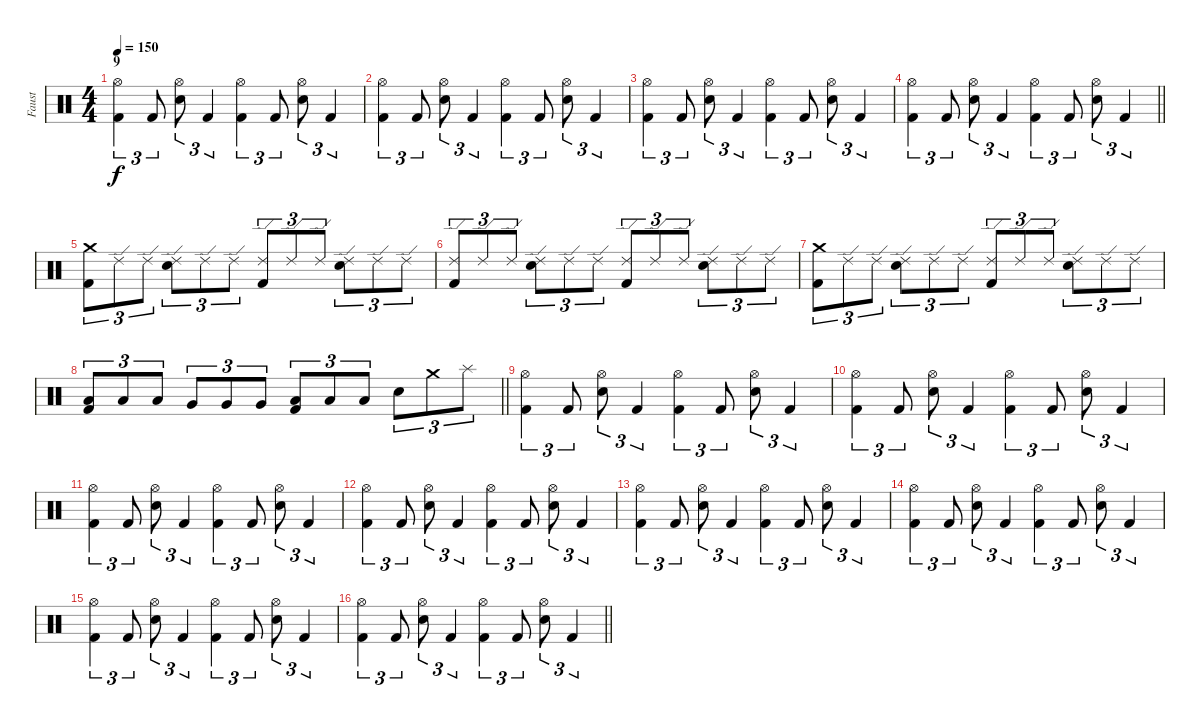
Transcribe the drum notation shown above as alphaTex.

\track ("Faust" "Faust") {instrument percussion}
\staff {score}
\articulation defaults
\ts (4 4)
\section ("" "9")
\tempo 150
\clef neutral
\ks c
("Hi-Hat (open)" "Kick (hit) 2").4{tu (3 2) dy f} "Kick (hit) 2".8{tu (3 2)} ("Hi-Hat (open)" "Electric Snare (hit)").8{tu (3 2)} "Kick (hit) 2".4{tu (3 2)} ("Hi-Hat (open)" "Kick (hit) 2").4{tu (3 2)} "Kick (hit) 2".8{tu (3 2)} ("Hi-Hat (open)" "Electric Snare (hit)").8{tu (3 2)} "Kick (hit) 2".4{tu (3 2)} |
("Hi-Hat (open)" "Kick (hit) 2").4{tu (3 2)} "Kick (hit) 2".8{tu (3 2)} ("Hi-Hat (open)" "Electric Snare (hit)").8{tu (3 2)} "Kick (hit) 2".4{tu (3 2)} ("Hi-Hat (open)" "Kick (hit) 2").4{tu (3 2)} "Kick (hit) 2".8{tu (3 2)} ("Hi-Hat (open)" "Electric Snare (hit)").8{tu (3 2)} "Kick (hit) 2".4{tu (3 2)} |
("Hi-Hat (open)" "Kick (hit) 2").4{tu (3 2)} "Kick (hit) 2".8{tu (3 2)} ("Hi-Hat (open)" "Electric Snare (hit)").8{tu (3 2)} "Kick (hit) 2".4{tu (3 2)} ("Hi-Hat (open)" "Kick (hit) 2").4{tu (3 2)} "Kick (hit) 2".8{tu (3 2)} ("Hi-Hat (open)" "Electric Snare (hit)").8{tu (3 2)} "Kick (hit) 2".4{tu (3 2)} |
\barLineRight lightlight
("Hi-Hat (open)" "Kick (hit) 2").4{tu (3 2)} "Kick (hit) 2".8{tu (3 2)} ("Hi-Hat (open)" "Electric Snare (hit)").8{tu (3 2)} "Kick (hit) 2".4{tu (3 2)} ("Hi-Hat (open)" "Kick (hit) 2").4{tu (3 2)} "Kick (hit) 2".8{tu (3 2)} ("Hi-Hat (open)" "Electric Snare (hit)").8{tu (3 2)} "Kick (hit) 2".4{tu (3 2)} |
\section ("" "")
("Crash medium (hit)" "Kick (hit) 2").8{tu (3 2)} "Ride (edge) 2".8{tu (3 2)} "Ride (edge) 2".8{tu (3 2)} ("Ride (edge) 2" "Electric Snare (hit)").8{tu (3 2)} "Ride (edge) 2".8{tu (3 2)} "Ride (edge) 2".8{tu (3 2)} ("Ride (edge) 2" "Kick (hit) 2").8{tu (3 2)} "Ride (edge) 2".8{tu (3 2)} "Ride (edge) 2".8{tu (3 2)} ("Ride (edge) 2" "Electric Snare (hit)").8{tu (3 2)} "Ride (edge) 2".8{tu (3 2)} "Ride (edge) 2".8{tu (3 2)} |
("Ride (edge) 2" "Kick (hit) 2").8{tu (3 2)} "Ride (edge) 2".8{tu (3 2)} "Ride (edge) 2".8{tu (3 2)} ("Ride (edge) 2" "Electric Snare (hit)").8{tu (3 2)} "Ride (edge) 2".8{tu (3 2)} "Ride (edge) 2".8{tu (3 2)} ("Ride (edge) 2" "Kick (hit) 2").8{tu (3 2)} "Ride (edge) 2".8{tu (3 2)} "Ride (edge) 2".8{tu (3 2)} ("Ride (edge) 2" "Electric Snare (hit)").8{tu (3 2)} "Ride (edge) 2".8{tu (3 2)} "Ride (edge) 2".8{tu (3 2)} |
("Crash medium (hit)" "Kick (hit) 2").8{tu (3 2)} "Ride (edge) 2".8{tu (3 2)} "Ride (edge) 2".8{tu (3 2)} ("Ride (edge) 2" "Electric Snare (hit)").8{tu (3 2)} "Ride (edge) 2".8{tu (3 2)} "Ride (edge) 2".8{tu (3 2)} ("Ride (edge) 2" "Kick (hit) 2").8{tu (3 2)} "Ride (edge) 2".8{tu (3 2)} "Ride (edge) 2".8{tu (3 2)} ("Ride (edge) 2" "Electric Snare (hit)").8{tu (3 2)} "Ride (edge) 2".8{tu (3 2)} "Ride (edge) 2".8{tu (3 2)} |
\barLineRight lightlight
("Low Tom (hit)" "Kick (hit) 2").8{tu (3 2)} "Low Tom (hit)".8{tu (3 2)} "Low Tom (hit)".8{tu (3 2)} "Very Low Tom (hit)".8{tu (3 2)} "Very Low Tom (hit)".8{tu (3 2)} "Very Low Tom (hit)".8{tu (3 2)} ("Low Floor Tom (hit)" "Kick (hit) 2").8{tu (3 2)} "Low Floor Tom (hit)".8{tu (3 2)} "Low Floor Tom (hit)".8{tu (3 2)} "Electric Snare (hit)".8{tu (3 2)} "Crash medium (hit)".8{tu (3 2)} "Splash (hit)".8{tu (3 2)} |
\section ("" "")
("Hi-Hat (open)" "Kick (hit) 2").4{tu (3 2)} "Kick (hit) 2".8{tu (3 2)} ("Hi-Hat (open)" "Electric Snare (hit)").8{tu (3 2)} "Kick (hit) 2".4{tu (3 2)} ("Hi-Hat (open)" "Kick (hit) 2").4{tu (3 2)} "Kick (hit) 2".8{tu (3 2)} ("Hi-Hat (open)" "Electric Snare (hit)").8{tu (3 2)} "Kick (hit) 2".4{tu (3 2)} |
("Hi-Hat (open)" "Kick (hit) 2").4{tu (3 2)} "Kick (hit) 2".8{tu (3 2)} ("Hi-Hat (open)" "Electric Snare (hit)").8{tu (3 2)} "Kick (hit) 2".4{tu (3 2)} ("Hi-Hat (open)" "Kick (hit) 2").4{tu (3 2)} "Kick (hit) 2".8{tu (3 2)} ("Hi-Hat (open)" "Electric Snare (hit)").8{tu (3 2)} "Kick (hit) 2".4{tu (3 2)} |
("Hi-Hat (open)" "Kick (hit) 2").4{tu (3 2)} "Kick (hit) 2".8{tu (3 2)} ("Hi-Hat (open)" "Electric Snare (hit)").8{tu (3 2)} "Kick (hit) 2".4{tu (3 2)} ("Hi-Hat (open)" "Kick (hit) 2").4{tu (3 2)} "Kick (hit) 2".8{tu (3 2)} ("Hi-Hat (open)" "Electric Snare (hit)").8{tu (3 2)} "Kick (hit) 2".4{tu (3 2)} |
("Hi-Hat (open)" "Kick (hit) 2").4{tu (3 2)} "Kick (hit) 2".8{tu (3 2)} ("Hi-Hat (open)" "Electric Snare (hit)").8{tu (3 2)} "Kick (hit) 2".4{tu (3 2)} ("Hi-Hat (open)" "Kick (hit) 2").4{tu (3 2)} "Kick (hit) 2".8{tu (3 2)} ("Hi-Hat (open)" "Electric Snare (hit)").8{tu (3 2)} "Kick (hit) 2".4{tu (3 2)} |
("Hi-Hat (open)" "Kick (hit) 2").4{tu (3 2)} "Kick (hit) 2".8{tu (3 2)} ("Hi-Hat (open)" "Electric Snare (hit)").8{tu (3 2)} "Kick (hit) 2".4{tu (3 2)} ("Hi-Hat (open)" "Kick (hit) 2").4{tu (3 2)} "Kick (hit) 2".8{tu (3 2)} ("Hi-Hat (open)" "Electric Snare (hit)").8{tu (3 2)} "Kick (hit) 2".4{tu (3 2)} |
("Hi-Hat (open)" "Kick (hit) 2").4{tu (3 2)} "Kick (hit) 2".8{tu (3 2)} ("Hi-Hat (open)" "Electric Snare (hit)").8{tu (3 2)} "Kick (hit) 2".4{tu (3 2)} ("Hi-Hat (open)" "Kick (hit) 2").4{tu (3 2)} "Kick (hit) 2".8{tu (3 2)} ("Hi-Hat (open)" "Electric Snare (hit)").8{tu (3 2)} "Kick (hit) 2".4{tu (3 2)} |
("Hi-Hat (open)" "Kick (hit) 2").4{tu (3 2)} "Kick (hit) 2".8{tu (3 2)} ("Hi-Hat (open)" "Electric Snare (hit)").8{tu (3 2)} "Kick (hit) 2".4{tu (3 2)} ("Hi-Hat (open)" "Kick (hit) 2").4{tu (3 2)} "Kick (hit) 2".8{tu (3 2)} ("Hi-Hat (open)" "Electric Snare (hit)").8{tu (3 2)} "Kick (hit) 2".4{tu (3 2)} |
\barLineRight lightlight
("Hi-Hat (open)" "Kick (hit) 2").4{tu (3 2)} "Kick (hit) 2".8{tu (3 2)} ("Hi-Hat (open)" "Electric Snare (hit)").8{tu (3 2)} "Kick (hit) 2".4{tu (3 2)} ("Hi-Hat (open)" "Kick (hit) 2").4{tu (3 2)} "Kick (hit) 2".8{tu (3 2)} ("Hi-Hat (open)" "Electric Snare (hit)").8{tu (3 2)} "Kick (hit) 2".4{tu (3 2)}
